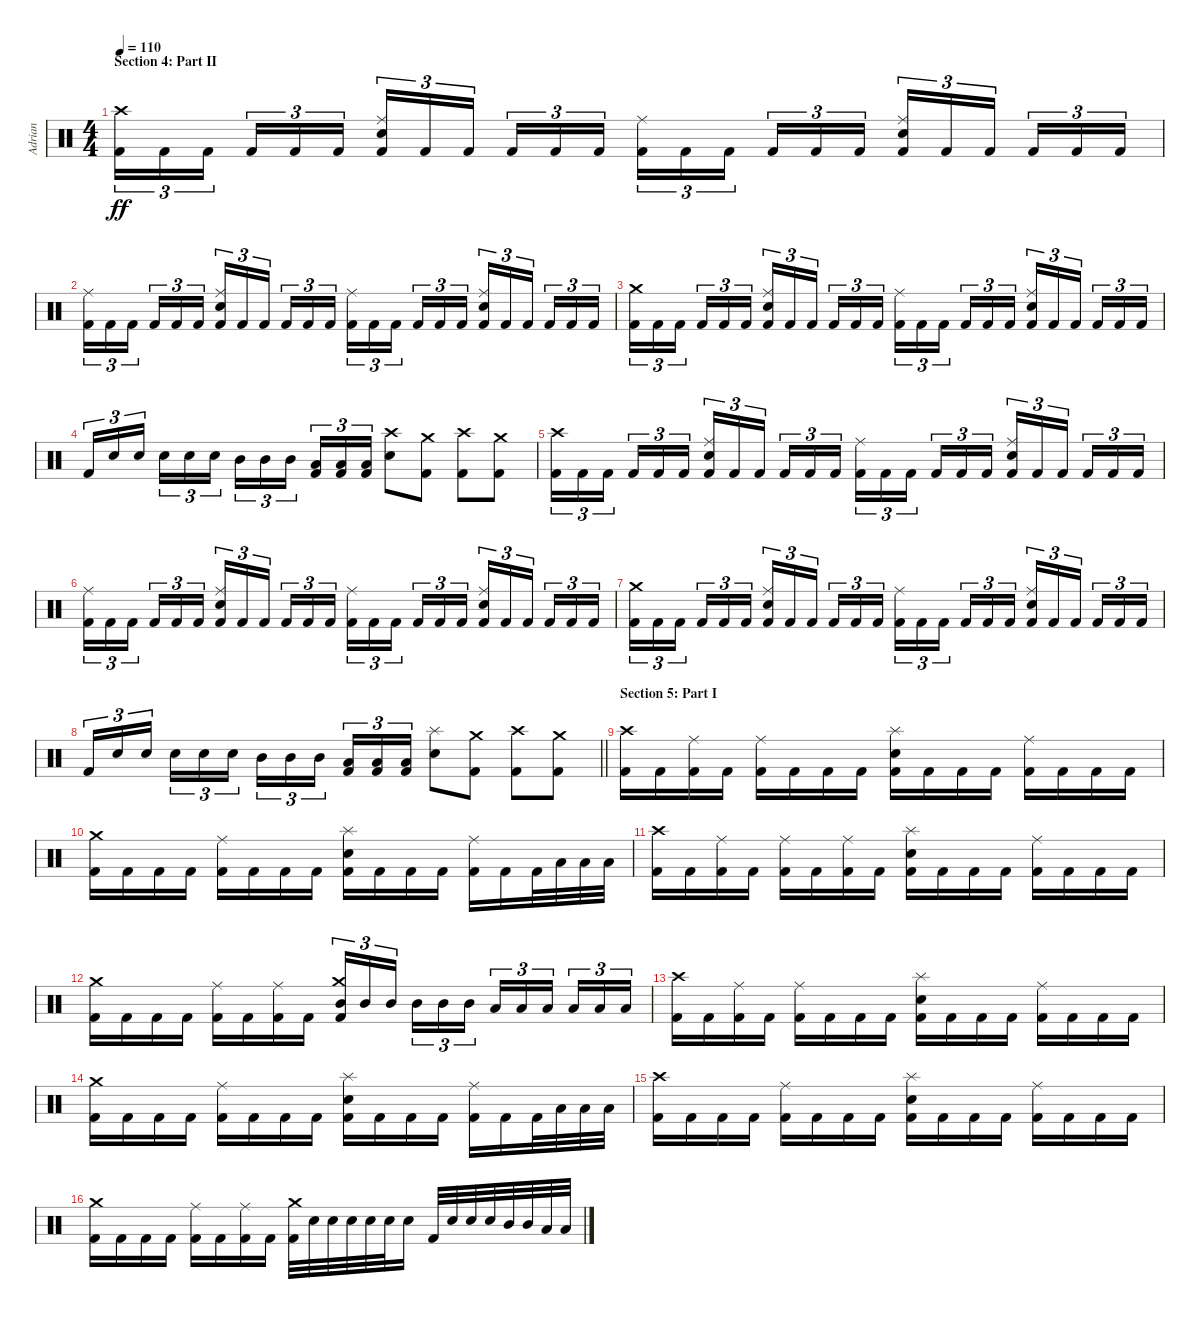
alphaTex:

\track ("Adrian" "Adrian") {instrument percussion}
\staff {score}
\articulation defaults
\ts (4 4)
\section ("" "Section 4: Part II")
\tempo 110
\clef neutral
\ks c
("Crash high (hit)" "Kick (hit) 2").16{tu (3 2) dy ff} "Kick (hit) 2".16{tu (3 2)} "Kick (hit) 2".16{tu (3 2) beam splitsecondary} "Kick (hit) 2".16{tu (3 2)} "Kick (hit) 2".16{tu (3 2)} "Kick (hit) 2".16{tu (3 2)} ("Ride (middle)" "Electric Snare (hit)" "Kick (hit) 2").16{tu (3 2)} "Kick (hit) 2".16{tu (3 2)} "Kick (hit) 2".16{tu (3 2) beam splitsecondary} "Kick (hit) 2".16{tu (3 2)} "Kick (hit) 2".16{tu (3 2)} "Kick (hit) 2".16{tu (3 2)} ("Ride (middle)" "Kick (hit) 2").16{tu (3 2)} "Kick (hit) 2".16{tu (3 2)} "Kick (hit) 2".16{tu (3 2) beam splitsecondary} "Kick (hit) 2".16{tu (3 2)} "Kick (hit) 2".16{tu (3 2)} "Kick (hit) 2".16{tu (3 2)} ("Ride (middle)" "Electric Snare (hit)" "Kick (hit) 2").16{tu (3 2)} "Kick (hit) 2".16{tu (3 2)} "Kick (hit) 2".16{tu (3 2) beam splitsecondary} "Kick (hit) 2".16{tu (3 2)} "Kick (hit) 2".16{tu (3 2)} "Kick (hit) 2".16{tu (3 2)} |
("Ride (middle)" "Kick (hit) 2").16{tu (3 2)} "Kick (hit) 2".16{tu (3 2)} "Kick (hit) 2".16{tu (3 2) beam splitsecondary} "Kick (hit) 2".16{tu (3 2)} "Kick (hit) 2".16{tu (3 2)} "Kick (hit) 2".16{tu (3 2)} ("Ride (middle)" "Electric Snare (hit)" "Kick (hit) 2").16{tu (3 2)} "Kick (hit) 2".16{tu (3 2)} "Kick (hit) 2".16{tu (3 2) beam splitsecondary} "Kick (hit) 2".16{tu (3 2)} "Kick (hit) 2".16{tu (3 2)} "Kick (hit) 2".16{tu (3 2)} ("Ride (middle)" "Kick (hit) 2").16{tu (3 2)} "Kick (hit) 2".16{tu (3 2)} "Kick (hit) 2".16{tu (3 2) beam splitsecondary} "Kick (hit) 2".16{tu (3 2)} "Kick (hit) 2".16{tu (3 2)} "Kick (hit) 2".16{tu (3 2)} ("Ride (middle)" "Electric Snare (hit)" "Kick (hit) 2").16{tu (3 2)} "Kick (hit) 2".16{tu (3 2)} "Kick (hit) 2".16{tu (3 2) beam splitsecondary} "Kick (hit) 2".16{tu (3 2)} "Kick (hit) 2".16{tu (3 2)} "Kick (hit) 2".16{tu (3 2)} |
("Crash medium (hit)" "Kick (hit) 2").16{tu (3 2)} "Kick (hit) 2".16{tu (3 2)} "Kick (hit) 2".16{tu (3 2) beam splitsecondary} "Kick (hit) 2".16{tu (3 2)} "Kick (hit) 2".16{tu (3 2)} "Kick (hit) 2".16{tu (3 2)} ("Ride (middle)" "Electric Snare (hit)" "Kick (hit) 2").16{tu (3 2)} "Kick (hit) 2".16{tu (3 2)} "Kick (hit) 2".16{tu (3 2) beam splitsecondary} "Kick (hit) 2".16{tu (3 2)} "Kick (hit) 2".16{tu (3 2)} "Kick (hit) 2".16{tu (3 2)} ("Ride (middle)" "Kick (hit) 2").16{tu (3 2)} "Kick (hit) 2".16{tu (3 2)} "Kick (hit) 2".16{tu (3 2) beam splitsecondary} "Kick (hit) 2".16{tu (3 2)} "Kick (hit) 2".16{tu (3 2)} "Kick (hit) 2".16{tu (3 2)} ("Ride (middle)" "Electric Snare (hit)" "Kick (hit) 2").16{tu (3 2)} "Kick (hit) 2".16{tu (3 2)} "Kick (hit) 2".16{tu (3 2) beam splitsecondary} "Kick (hit) 2".16{tu (3 2)} "Kick (hit) 2".16{tu (3 2)} "Kick (hit) 2".16{tu (3 2)} |
"Kick (hit) 2".16{tu (3 2)} "Electric Snare (hit)".16{tu (3 2)} "Electric Snare (hit)".16{tu (3 2) beam splitsecondary} "Electric Snare (hit)".16{tu (3 2)} "Electric Snare (hit)".16{tu (3 2)} "Electric Snare (hit)".16{tu (3 2)} "Mid Tom (hit)".16{tu (3 2)} "Mid Tom (hit)".16{tu (3 2)} "Mid Tom (hit)".16{tu (3 2) beam splitsecondary} ("Low Tom (hit)" "Kick (hit) 2").16{tu (3 2)} ("Low Tom (hit)" "Kick (hit) 2").16{tu (3 2)} ("Low Tom (hit)" "Kick (hit) 2").16{tu (3 2)} ("Crash high (hit)" "Electric Snare (hit)").8 ("Crash medium (hit)" "Kick (hit) 2").8 ("Crash high (hit)" "Kick (hit) 2").8 ("Crash medium (hit)" "Kick (hit) 2").8 |
("Crash high (hit)" "Kick (hit) 2").16{tu (3 2)} "Kick (hit) 2".16{tu (3 2)} "Kick (hit) 2".16{tu (3 2) beam splitsecondary} "Kick (hit) 2".16{tu (3 2)} "Kick (hit) 2".16{tu (3 2)} "Kick (hit) 2".16{tu (3 2)} ("Ride (middle)" "Electric Snare (hit)" "Kick (hit) 2").16{tu (3 2)} "Kick (hit) 2".16{tu (3 2)} "Kick (hit) 2".16{tu (3 2) beam splitsecondary} "Kick (hit) 2".16{tu (3 2)} "Kick (hit) 2".16{tu (3 2)} "Kick (hit) 2".16{tu (3 2)} ("Ride (middle)" "Kick (hit) 2").16{tu (3 2)} "Kick (hit) 2".16{tu (3 2)} "Kick (hit) 2".16{tu (3 2) beam splitsecondary} "Kick (hit) 2".16{tu (3 2)} "Kick (hit) 2".16{tu (3 2)} "Kick (hit) 2".16{tu (3 2)} ("Ride (middle)" "Electric Snare (hit)" "Kick (hit) 2").16{tu (3 2)} "Kick (hit) 2".16{tu (3 2)} "Kick (hit) 2".16{tu (3 2) beam splitsecondary} "Kick (hit) 2".16{tu (3 2)} "Kick (hit) 2".16{tu (3 2)} "Kick (hit) 2".16{tu (3 2)} |
("Ride (middle)" "Kick (hit) 2").16{tu (3 2)} "Kick (hit) 2".16{tu (3 2)} "Kick (hit) 2".16{tu (3 2) beam splitsecondary} "Kick (hit) 2".16{tu (3 2)} "Kick (hit) 2".16{tu (3 2)} "Kick (hit) 2".16{tu (3 2)} ("Ride (middle)" "Electric Snare (hit)" "Kick (hit) 2").16{tu (3 2)} "Kick (hit) 2".16{tu (3 2)} "Kick (hit) 2".16{tu (3 2) beam splitsecondary} "Kick (hit) 2".16{tu (3 2)} "Kick (hit) 2".16{tu (3 2)} "Kick (hit) 2".16{tu (3 2)} ("Ride (middle)" "Kick (hit) 2").16{tu (3 2)} "Kick (hit) 2".16{tu (3 2)} "Kick (hit) 2".16{tu (3 2) beam splitsecondary} "Kick (hit) 2".16{tu (3 2)} "Kick (hit) 2".16{tu (3 2)} "Kick (hit) 2".16{tu (3 2)} ("Ride (middle)" "Electric Snare (hit)" "Kick (hit) 2").16{tu (3 2)} "Kick (hit) 2".16{tu (3 2)} "Kick (hit) 2".16{tu (3 2) beam splitsecondary} "Kick (hit) 2".16{tu (3 2)} "Kick (hit) 2".16{tu (3 2)} "Kick (hit) 2".16{tu (3 2)} |
("Crash medium (hit)" "Kick (hit) 2").16{tu (3 2)} "Kick (hit) 2".16{tu (3 2)} "Kick (hit) 2".16{tu (3 2) beam splitsecondary} "Kick (hit) 2".16{tu (3 2)} "Kick (hit) 2".16{tu (3 2)} "Kick (hit) 2".16{tu (3 2)} ("Ride (middle)" "Electric Snare (hit)" "Kick (hit) 2").16{tu (3 2)} "Kick (hit) 2".16{tu (3 2)} "Kick (hit) 2".16{tu (3 2) beam splitsecondary} "Kick (hit) 2".16{tu (3 2)} "Kick (hit) 2".16{tu (3 2)} "Kick (hit) 2".16{tu (3 2)} ("Ride (middle)" "Kick (hit) 2").16{tu (3 2)} "Kick (hit) 2".16{tu (3 2)} "Kick (hit) 2".16{tu (3 2) beam splitsecondary} "Kick (hit) 2".16{tu (3 2)} "Kick (hit) 2".16{tu (3 2)} "Kick (hit) 2".16{tu (3 2)} ("Ride (middle)" "Electric Snare (hit)" "Kick (hit) 2").16{tu (3 2)} "Kick (hit) 2".16{tu (3 2)} "Kick (hit) 2".16{tu (3 2) beam splitsecondary} "Kick (hit) 2".16{tu (3 2)} "Kick (hit) 2".16{tu (3 2)} "Kick (hit) 2".16{tu (3 2)} |
\barLineRight lightlight "Kick (hit) 2".16{tu (3 2)} "Electric Snare (hit)".16{tu (3 2)} "Electric Snare (hit)".16{tu (3 2) beam splitsecondary} "Electric Snare (hit)".16{tu (3 2)} "Electric Snare (hit)".16{tu (3 2)} "Electric Snare (hit)".16{tu (3 2)} "Mid Tom (hit)".16{tu (3 2)} "Mid Tom (hit)".16{tu (3 2)} "Mid Tom (hit)".16{tu (3 2) beam splitsecondary}
("Low Tom (hit)" "Kick (hit) 2").16{tu (3 2)} ("Low Tom (hit)" "Kick (hit) 2").16{tu (3 2)} ("Low Tom (hit)" "Kick (hit) 2").16{tu (3 2)} ("Splash (hit)" "Electric Snare (hit)").8 ("Crash medium (hit)" "Kick (hit) 2").8 ("Crash high (hit)" "Kick (hit) 2").8 ("Crash medium (hit)" "Kick (hit) 2").8 |
\section ("" "Section 5: Part I")
("Crash high (hit)" "Kick (hit) 2").16 "Kick (hit) 2".16 ("Ride (middle)" "Kick (hit) 2").16 "Kick (hit) 2".16 ("Ride (middle)" "Kick (hit) 2").16 "Kick (hit) 2".16 "Kick (hit) 2".16 "Kick (hit) 2".16 ("Splash (hit)" "Electric Snare (hit)" "Kick (hit) 2").16 "Kick (hit) 2".16 "Kick (hit) 2".16 "Kick (hit) 2".16 ("Ride (middle)" "Kick (hit) 2").16 "Kick (hit) 2".16 "Kick (hit) 2".16 "Kick (hit) 2".16 |
("Crash medium (hit)" "Kick (hit) 2").16 "Kick (hit) 2".16 "Kick (hit) 2".16 "Kick (hit) 2".16 ("Ride (middle)" "Kick (hit) 2").16 "Kick (hit) 2".16 "Kick (hit) 2".16 "Kick (hit) 2".16 ("Splash (hit)" "Electric Snare (hit)" "Kick (hit) 2").16 "Kick (hit) 2".16 "Kick (hit) 2".16 "Kick (hit) 2".16 ("Ride (middle)" "Kick (hit) 2").16 "Kick (hit) 2".16 "Kick (hit) 2".32 "Low Tom (hit)".32 "Low Tom (hit)".32 "Low Tom (hit)".32 |
("Crash high (hit)" "Kick (hit) 2").16 "Kick (hit) 2".16 ("Ride (middle)" "Kick (hit) 2").16 "Kick (hit) 2".16 ("Ride (middle)" "Kick (hit) 2").16 "Kick (hit) 2".16 ("Ride (middle)" "Kick (hit) 2").16 "Kick (hit) 2".16 ("Splash (hit)" "Electric Snare (hit)" "Kick (hit) 2").16 "Kick (hit) 2".16 "Kick (hit) 2".16 "Kick (hit) 2".16 ("Ride (middle)" "Kick (hit) 2").16 "Kick (hit) 2".16 "Kick (hit) 2".16 "Kick (hit) 2".16 |
("Crash medium (hit)" "Kick (hit) 2").16 "Kick (hit) 2".16 "Kick (hit) 2".16 "Kick (hit) 2".16 ("Ride (middle)" "Kick (hit) 2").16 "Kick (hit) 2".16 ("Ride (middle)" "Kick (hit) 2").16 "Kick (hit) 2".16 ("Crash medium (hit)" "Mid Tom (hit)" "Kick (hit) 2").16{tu (3 2)} "Mid Tom (hit)".16{tu (3 2)} "Mid Tom (hit)".16{tu (3 2) beam splitsecondary} "Mid Tom (hit)".16{tu (3 2)} "Mid Tom (hit)".16{tu (3 2)} "Mid Tom (hit)".16{tu (3 2)} "Low Tom (hit)".16{tu (3 2)} "Low Tom (hit)".16{tu (3 2)} "Low Tom (hit)".16{tu (3 2) beam splitsecondary} "Low Floor Tom (hit)".16{tu (3 2)} "Low Floor Tom (hit)".16{tu (3 2)} "Low Floor Tom (hit)".16{tu (3 2)} |
("Crash high (hit)" "Kick (hit) 2").16 "Kick (hit) 2".16 ("Ride (middle)" "Kick (hit) 2").16 "Kick (hit) 2".16 ("Ride (middle)" "Kick (hit) 2").16 "Kick (hit) 2".16 "Kick (hit) 2".16 "Kick (hit) 2".16 ("Splash (hit)" "Electric Snare (hit)" "Kick (hit) 2").16 "Kick (hit) 2".16 "Kick (hit) 2".16 "Kick (hit) 2".16 ("Ride (middle)" "Kick (hit) 2").16 "Kick (hit) 2".16 "Kick (hit) 2".16 "Kick (hit) 2".16 |
("Crash medium (hit)" "Kick (hit) 2").16 "Kick (hit) 2".16 "Kick (hit) 2".16 "Kick (hit) 2".16 ("Ride (middle)" "Kick (hit) 2").16 "Kick (hit) 2".16 "Kick (hit) 2".16 "Kick (hit) 2".16 ("Splash (hit)" "Electric Snare (hit)" "Kick (hit) 2").16 "Kick (hit) 2".16 "Kick (hit) 2".16 "Kick (hit) 2".16 ("Ride (middle)" "Kick (hit) 2").16 "Kick (hit) 2".16 "Kick (hit) 2".32 "Low Tom (hit)".32 "Low Tom (hit)".32 "Low Tom (hit)".32 |
("Crash high (hit)" "Kick (hit) 2").16 "Kick (hit) 2".16 "Kick (hit) 2".16 "Kick (hit) 2".16 ("Ride (middle)" "Kick (hit) 2").16 "Kick (hit) 2".16 "Kick (hit) 2".16 "Kick (hit) 2".16 ("Splash (hit)" "Electric Snare (hit)" "Kick (hit) 2").16 "Kick (hit) 2".16 "Kick (hit) 2".16 "Kick (hit) 2".16 ("Ride (middle)" "Kick (hit) 2").16 "Kick (hit) 2".16 "Kick (hit) 2".16 "Kick (hit) 2".16 |
("Crash medium (hit)" "Kick (hit) 2").16 "Kick (hit) 2".16 "Kick (hit) 2".16 "Kick (hit) 2".16 ("Ride (middle)" "Kick (hit) 2").16 "Kick (hit) 2".16 ("Ride (middle)" "Kick (hit) 2").16 "Kick (hit) 2".16 ("Crash medium (hit)" "Kick (hit) 2").32 "Electric Snare (hit)".32 "Electric Snare (hit)".32 "Electric Snare (hit)".32 "Electric Snare (hit)".32 "Electric Snare (hit)".32 "Electric Snare (hit)".16 "Kick (hit) 2".32 "Electric Snare (hit)".32 "Electric Snare (hit)".32 "Electric Snare (hit)".32 "Mid Tom (hit)".32 "Mid Tom (hit)".32 "Low Tom (hit)".32 "Low Tom (hit)".32
